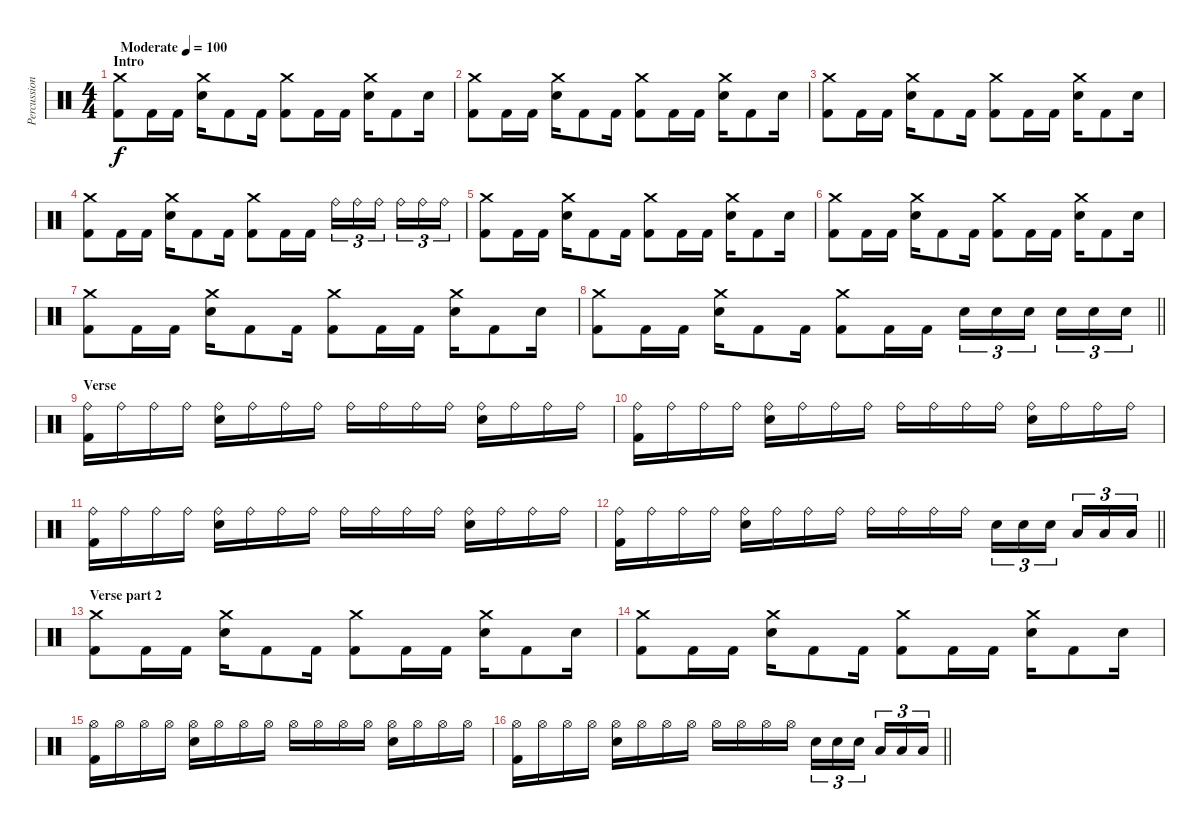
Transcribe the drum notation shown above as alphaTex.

\track ("Percussion" "Percussion") {instrument percussion}
\staff {score}
\articulation defaults
\ts (4 4)
\section ("" "Intro")
\tempo (100 "Moderate")
\clef neutral
\ks c
("Kick (hit) 2" "Crash medium (hit)").8{dy f} "Kick (hit) 2".16 "Kick (hit) 2".16 ("Snare (hit) 2" "Crash medium (hit)").16 "Kick (hit) 2".8 "Kick (hit) 2".16 ("Kick (hit) 2" "Crash medium (hit)").8 "Kick (hit) 2".16 "Kick (hit) 2".16 ("Snare (hit) 2" "Crash medium (hit)").16 "Kick (hit) 2".8 "Snare (hit) 2".16 |
("Kick (hit) 2" "Crash medium (hit)").8 "Kick (hit) 2".16 "Kick (hit) 2".16 ("Snare (hit) 2" "Crash medium (hit)").16 "Kick (hit) 2".8 "Kick (hit) 2".16 ("Kick (hit) 2" "Crash medium (hit)").8 "Kick (hit) 2".16 "Kick (hit) 2".16 ("Snare (hit) 2" "Crash medium (hit)").16 "Kick (hit) 2".8 "Snare (hit) 2".16 |
("Kick (hit) 2" "Crash medium (hit)").8 "Kick (hit) 2".16 "Kick (hit) 2".16 ("Snare (hit) 2" "Crash medium (hit)").16 "Kick (hit) 2".8 "Kick (hit) 2".16 ("Kick (hit) 2" "Crash medium (hit)").8 "Kick (hit) 2".16 "Kick (hit) 2".16 ("Snare (hit) 2" "Crash medium (hit)").16 "Kick (hit) 2".8 "Snare (hit) 2".16 |
("Kick (hit) 2" "Crash medium (hit)").8 "Kick (hit) 2".16 "Kick (hit) 2".16 ("Snare (hit) 2" "Crash medium (hit)").16 "Kick (hit) 2".8 "Kick (hit) 2".16 ("Kick (hit) 2" "Crash medium (hit)").8 "Kick (hit) 2".16 "Kick (hit) 2".16 "Ride (bell)".16{tu (3 2)} "Ride (bell)".16{tu (3 2)} "Ride (bell)".16{tu (3 2) beam splitsecondary} "Ride (bell)".16{tu (3 2)} "Ride (bell)".16{tu (3 2)} "Ride (bell)".16{tu (3 2)} |
("Kick (hit) 2" "Crash medium (hit)").8 "Kick (hit) 2".16 "Kick (hit) 2".16 ("Snare (hit) 2" "Crash medium (hit)").16 "Kick (hit) 2".8 "Kick (hit) 2".16 ("Kick (hit) 2" "Crash medium (hit)").8 "Kick (hit) 2".16 "Kick (hit) 2".16 ("Snare (hit) 2" "Crash medium (hit)").16 "Kick (hit) 2".8 "Snare (hit) 2".16 |
("Kick (hit) 2" "Crash medium (hit)").8 "Kick (hit) 2".16 "Kick (hit) 2".16 ("Snare (hit) 2" "Crash medium (hit)").16 "Kick (hit) 2".8 "Kick (hit) 2".16 ("Kick (hit) 2" "Crash medium (hit)").8 "Kick (hit) 2".16 "Kick (hit) 2".16 ("Snare (hit) 2" "Crash medium (hit)").16 "Kick (hit) 2".8 "Snare (hit) 2".16 |
("Kick (hit) 2" "Crash medium (hit)").8 "Kick (hit) 2".16 "Kick (hit) 2".16 ("Snare (hit) 2" "Crash medium (hit)").16 "Kick (hit) 2".8 "Kick (hit) 2".16 ("Kick (hit) 2" "Crash medium (hit)").8 "Kick (hit) 2".16 "Kick (hit) 2".16 ("Snare (hit) 2" "Crash medium (hit)").16 "Kick (hit) 2".8 "Snare (hit) 2".16 |
\barLineRight lightlight
("Kick (hit) 2" "Crash medium (hit)").8 "Kick (hit) 2".16 "Kick (hit) 2".16 ("Snare (hit) 2" "Crash medium (hit)").16 "Kick (hit) 2".8 "Kick (hit) 2".16 ("Kick (hit) 2" "Crash medium (hit)").8 "Kick (hit) 2".16 "Kick (hit) 2".16 "Snare (hit) 2".16{tu (3 2)} "Snare (hit) 2".16{tu (3 2)} "Snare (hit) 2".16{tu (3 2) beam splitsecondary} "Snare (hit) 2".16{tu (3 2)} "Snare (hit) 2".16{tu (3 2)} "Snare (hit) 2".16{tu (3 2)} |
\section ("" "Verse")
("Ride (bell)" "Kick (hit) 2").16 "Ride (bell)".16 "Ride (bell)".16 "Ride (bell)".16 ("Ride (bell)" "Snare (hit) 2").16 "Ride (bell)".16 "Ride (bell)".16 "Ride (bell)".16 "Ride (bell)".16 "Ride (bell)".16 "Ride (bell)".16 "Ride (bell)".16 ("Ride (bell)" "Snare (hit) 2").16 "Ride (bell)".16 "Ride (bell)".16 "Ride (bell)".16 |
("Ride (bell)" "Kick (hit) 2").16 "Ride (bell)".16 "Ride (bell)".16 "Ride (bell)".16 ("Ride (bell)" "Snare (hit) 2").16 "Ride (bell)".16 "Ride (bell)".16 "Ride (bell)".16 "Ride (bell)".16 "Ride (bell)".16 "Ride (bell)".16 "Ride (bell)".16 ("Ride (bell)" "Snare (hit) 2").16 "Ride (bell)".16 "Ride (bell)".16 "Ride (bell)".16 |
("Ride (bell)" "Kick (hit) 2").16 "Ride (bell)".16 "Ride (bell)".16 "Ride (bell)".16 ("Ride (bell)" "Snare (hit) 2").16 "Ride (bell)".16 "Ride (bell)".16 "Ride (bell)".16 "Ride (bell)".16 "Ride (bell)".16 "Ride (bell)".16 "Ride (bell)".16 ("Ride (bell)" "Snare (hit) 2").16 "Ride (bell)".16 "Ride (bell)".16 "Ride (bell)".16 |
\barLineRight lightlight
("Ride (bell)" "Kick (hit) 2").16 "Ride (bell)".16 "Ride (bell)".16 "Ride (bell)".16 ("Ride (bell)" "Snare (hit) 2").16 "Ride (bell)".16 "Ride (bell)".16 "Ride (bell)".16 "Ride (bell)".16 "Ride (bell)".16 "Ride (bell)".16 "Ride (bell)".16 "Snare (hit) 2".16{tu (3 2)} "Snare (hit) 2".16{tu (3 2)} "Snare (hit) 2".16{tu (3 2) beam splitsecondary} "Low Floor Tom (hit)".16{tu (3 2)} "Low Floor Tom (hit)".16{tu (3 2)} "Low Floor Tom (hit)".16{tu (3 2)} |
\section ("" "Verse part 2")
("Kick (hit) 2" "Crash medium (hit)").8 "Kick (hit) 2".16 "Kick (hit) 2".16 ("Snare (hit) 2" "Crash medium (hit)").16 "Kick (hit) 2".8 "Kick (hit) 2".16 ("Kick (hit) 2" "Crash medium (hit)").8 "Kick (hit) 2".16 "Kick (hit) 2".16 ("Snare (hit) 2" "Crash medium (hit)").16 "Kick (hit) 2".8 "Snare (hit) 2".16 |
("Kick (hit) 2" "Crash medium (hit)").8 "Kick (hit) 2".16 "Kick (hit) 2".16 ("Snare (hit) 2" "Crash medium (hit)").16 "Kick (hit) 2".8 "Kick (hit) 2".16 ("Kick (hit) 2" "Crash medium (hit)").8 "Kick (hit) 2".16 "Kick (hit) 2".16 ("Snare (hit) 2" "Crash medium (hit)").16 "Kick (hit) 2".8 "Snare (hit) 2".16 |
("Hi-Hat (open)" "Kick (hit) 2").16 "Hi-Hat (open)".16 "Hi-Hat (open)".16 "Hi-Hat (open)".16 ("Hi-Hat (open)" "Snare (hit) 2").16 "Hi-Hat (open)".16 "Hi-Hat (open)".16 "Hi-Hat (open)".16 "Hi-Hat (open)".16 "Hi-Hat (open)".16 "Hi-Hat (open)".16 "Hi-Hat (open)".16 ("Hi-Hat (open)" "Snare (hit) 2").16 "Hi-Hat (open)".16 "Hi-Hat (open)".16 "Hi-Hat (open)".16 |
\barLineRight lightlight
("Hi-Hat (open)" "Kick (hit) 2").16 "Hi-Hat (open)".16 "Hi-Hat (open)".16 "Hi-Hat (open)".16 ("Hi-Hat (open)" "Snare (hit) 2").16 "Hi-Hat (open)".16 "Hi-Hat (open)".16 "Hi-Hat (open)".16 "Hi-Hat (open)".16 "Hi-Hat (open)".16 "Hi-Hat (open)".16 "Hi-Hat (open)".16 "Snare (hit) 2".16{tu (3 2)} "Snare (hit) 2".16{tu (3 2)} "Snare (hit) 2".16{tu (3 2) beam splitsecondary} "Low Floor Tom (hit)".16{tu (3 2)} "Low Floor Tom (hit)".16{tu (3 2)} "Low Floor Tom (hit)".16{tu (3 2)}
